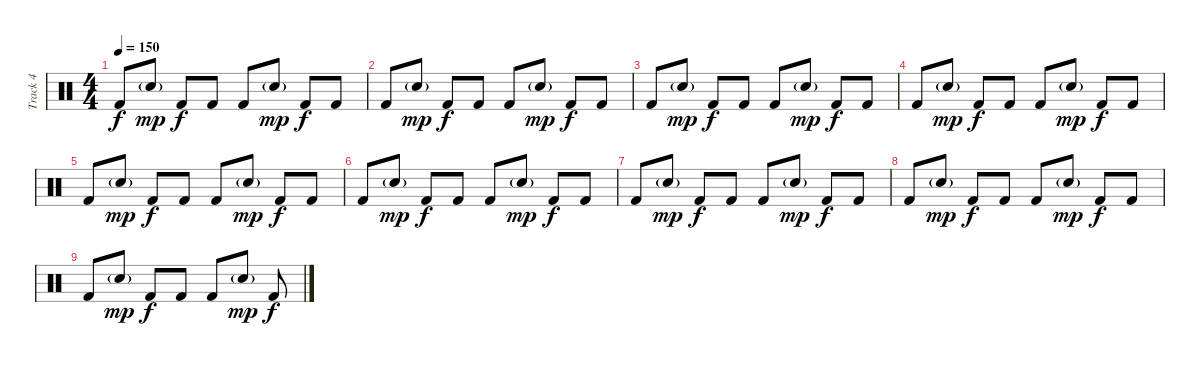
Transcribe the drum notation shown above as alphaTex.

\track ("Track 4" "Track 4") {instrument percussion}
\staff {score}
\articulation defaults
\ts (4 4)
\tempo 150
\clef neutral
\ks c "Kick (hit) 2".8{dy f} "Snare (hit) 2"{g}.8{dy mp} "Kick (hit) 2".8{dy f} "Kick (hit) 2".8 "Kick (hit) 2".8 "Snare (hit) 2"{g}.8{dy mp} "Kick (hit) 2".8{dy f} "Kick (hit) 2".8
|
"Kick (hit) 2".8 "Snare (hit) 2"{g}.8{dy mp} "Kick (hit) 2".8{dy f} "Kick (hit) 2".8 "Kick (hit) 2".8 "Snare (hit) 2"{g}.8{dy mp} "Kick (hit) 2".8{dy f} "Kick (hit) 2".8 |
"Kick (hit) 2".8 "Snare (hit) 2"{g}.8{dy mp} "Kick (hit) 2".8{dy f} "Kick (hit) 2".8 "Kick (hit) 2".8 "Snare (hit) 2"{g}.8{dy mp} "Kick (hit) 2".8{dy f} "Kick (hit) 2".8 |
"Kick (hit) 2".8 "Snare (hit) 2"{g}.8{dy mp} "Kick (hit) 2".8{dy f} "Kick (hit) 2".8 "Kick (hit) 2".8 "Snare (hit) 2"{g}.8{dy mp} "Kick (hit) 2".8{dy f} "Kick (hit) 2".8 |
"Kick (hit) 2".8 "Snare (hit) 2"{g}.8{dy mp} "Kick (hit) 2".8{dy f} "Kick (hit) 2".8 "Kick (hit) 2".8 "Snare (hit) 2"{g}.8{dy mp} "Kick (hit) 2".8{dy f} "Kick (hit) 2".8 |
"Kick (hit) 2".8 "Snare (hit) 2"{g}.8{dy mp} "Kick (hit) 2".8{dy f} "Kick (hit) 2".8 "Kick (hit) 2".8 "Snare (hit) 2"{g}.8{dy mp} "Kick (hit) 2".8{dy f} "Kick (hit) 2".8 |
"Kick (hit) 2".8 "Snare (hit) 2"{g}.8{dy mp} "Kick (hit) 2".8{dy f} "Kick (hit) 2".8 "Kick (hit) 2".8 "Snare (hit) 2"{g}.8{dy mp} "Kick (hit) 2".8{dy f} "Kick (hit) 2".8 |
"Kick (hit) 2".8 "Snare (hit) 2"{g}.8{dy mp} "Kick (hit) 2".8{dy f} "Kick (hit) 2".8 "Kick (hit) 2".8 "Snare (hit) 2"{g}.8{dy mp} "Kick (hit) 2".8{dy f} "Kick (hit) 2".8 |
"Kick (hit) 2".8 "Snare (hit) 2"{g}.8{dy mp} "Kick (hit) 2".8{dy f} "Kick (hit) 2".8 "Kick (hit) 2".8 "Snare (hit) 2"{g}.8{dy mp} "Kick (hit) 2".8{dy f}
